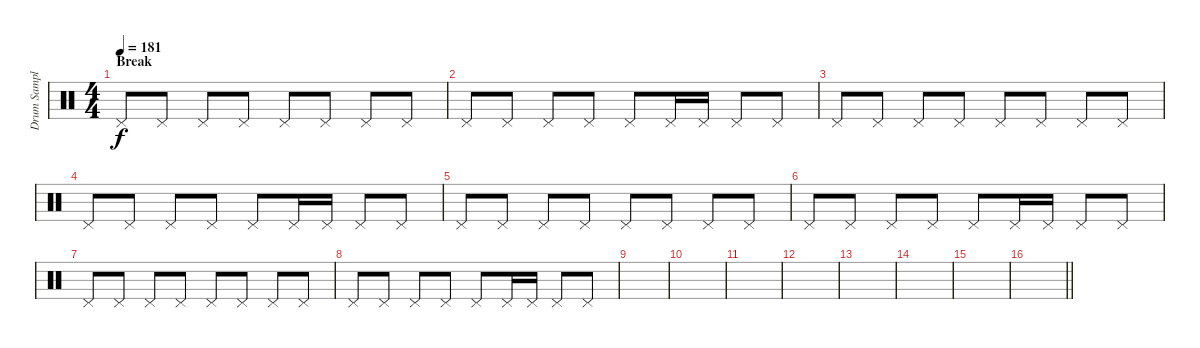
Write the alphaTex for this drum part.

\track ("Drum Sample" "Drum Sampl") {instrument percussion}
\staff {score}
\articulation defaults
\ts (4 4)
\section ("" "Break")
\tempo 181
\clef neutral
\ks c "Pedal Hi-Hat (hit)".8{dy f} "Pedal Hi-Hat (hit)".8 "Pedal Hi-Hat (hit)".8 "Pedal Hi-Hat (hit)".8 "Pedal Hi-Hat (hit)".8 "Pedal Hi-Hat (hit)".8 "Pedal Hi-Hat (hit)".8 "Pedal Hi-Hat (hit)".8
|
"Pedal Hi-Hat (hit)".8 "Pedal Hi-Hat (hit)".8 "Pedal Hi-Hat (hit)".8 "Pedal Hi-Hat (hit)".8 "Pedal Hi-Hat (hit)".8 "Pedal Hi-Hat (hit)".16 "Pedal Hi-Hat (hit)".16 "Pedal Hi-Hat (hit)".8 "Pedal Hi-Hat (hit)".8 |
"Pedal Hi-Hat (hit)".8 "Pedal Hi-Hat (hit)".8 "Pedal Hi-Hat (hit)".8 "Pedal Hi-Hat (hit)".8 "Pedal Hi-Hat (hit)".8 "Pedal Hi-Hat (hit)".8 "Pedal Hi-Hat (hit)".8 "Pedal Hi-Hat (hit)".8 |
"Pedal Hi-Hat (hit)".8 "Pedal Hi-Hat (hit)".8 "Pedal Hi-Hat (hit)".8 "Pedal Hi-Hat (hit)".8 "Pedal Hi-Hat (hit)".8 "Pedal Hi-Hat (hit)".16 "Pedal Hi-Hat (hit)".16 "Pedal Hi-Hat (hit)".8 "Pedal Hi-Hat (hit)".8 |
"Pedal Hi-Hat (hit)".8 "Pedal Hi-Hat (hit)".8 "Pedal Hi-Hat (hit)".8 "Pedal Hi-Hat (hit)".8 "Pedal Hi-Hat (hit)".8 "Pedal Hi-Hat (hit)".8 "Pedal Hi-Hat (hit)".8 "Pedal Hi-Hat (hit)".8 |
"Pedal Hi-Hat (hit)".8 "Pedal Hi-Hat (hit)".8 "Pedal Hi-Hat (hit)".8 "Pedal Hi-Hat (hit)".8 "Pedal Hi-Hat (hit)".8 "Pedal Hi-Hat (hit)".16 "Pedal Hi-Hat (hit)".16 "Pedal Hi-Hat (hit)".8 "Pedal Hi-Hat (hit)".8 |
"Pedal Hi-Hat (hit)".8 "Pedal Hi-Hat (hit)".8 "Pedal Hi-Hat (hit)".8 "Pedal Hi-Hat (hit)".8 "Pedal Hi-Hat (hit)".8 "Pedal Hi-Hat (hit)".8 "Pedal Hi-Hat (hit)".8 "Pedal Hi-Hat (hit)".8 |
"Pedal Hi-Hat (hit)".8 "Pedal Hi-Hat (hit)".8 "Pedal Hi-Hat (hit)".8 "Pedal Hi-Hat (hit)".8 "Pedal Hi-Hat (hit)".8 "Pedal Hi-Hat (hit)".16 "Pedal Hi-Hat (hit)".16 "Pedal Hi-Hat (hit)".8 "Pedal Hi-Hat (hit)".8 |
|
|
|
|
|
|
|
\barLineRight lightlight
